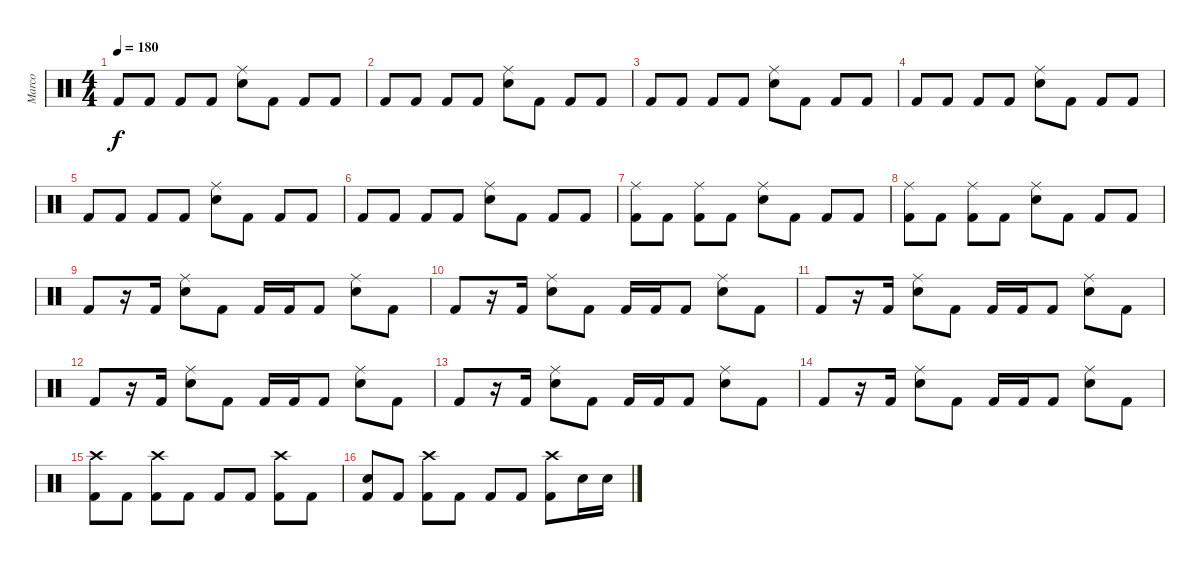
\track ("Marco" "Marco") {instrument percussion}
\staff {score}
\articulation defaults
\ts (4 4)
\tempo 180
\clef neutral
\ks c "Kick (hit) 2".8{dy f} "Kick (hit) 2".8 "Kick (hit) 2".8 "Kick (hit) 2".8
("Electric Snare (hit)" "Ride (middle)").8 "Kick (hit) 2".8 "Kick (hit) 2".8 "Kick (hit) 2".8 |
"Kick (hit) 2".8 "Kick (hit) 2".8 "Kick (hit) 2".8 "Kick (hit) 2".8 ("Electric Snare (hit)" "Ride (middle)").8 "Kick (hit) 2".8 "Kick (hit) 2".8 "Kick (hit) 2".8 |
"Kick (hit) 2".8 "Kick (hit) 2".8 "Kick (hit) 2".8 "Kick (hit) 2".8 ("Electric Snare (hit)" "Ride (middle)").8 "Kick (hit) 2".8 "Kick (hit) 2".8 "Kick (hit) 2".8 |
"Kick (hit) 2".8 "Kick (hit) 2".8 "Kick (hit) 2".8 "Kick (hit) 2".8 ("Electric Snare (hit)" "Ride (middle)").8 "Kick (hit) 2".8 "Kick (hit) 2".8 "Kick (hit) 2".8 |
"Kick (hit) 2".8 "Kick (hit) 2".8 "Kick (hit) 2".8 "Kick (hit) 2".8 ("Electric Snare (hit)" "Ride (middle)").8 "Kick (hit) 2".8 "Kick (hit) 2".8 "Kick (hit) 2".8 |
"Kick (hit) 2".8 "Kick (hit) 2".8 "Kick (hit) 2".8 "Kick (hit) 2".8 ("Electric Snare (hit)" "Ride (middle)").8 "Kick (hit) 2".8 "Kick (hit) 2".8 "Kick (hit) 2".8 |
("Kick (hit) 2" "Ride (middle)").8 "Kick (hit) 2".8 ("Kick (hit) 2" "Ride (middle)").8 "Kick (hit) 2".8 ("Electric Snare (hit)" "Ride (middle)").8 "Kick (hit) 2".8 "Kick (hit) 2".8 "Kick (hit) 2".8 |
("Kick (hit) 2" "Ride (middle)").8 "Kick (hit) 2".8 ("Kick (hit) 2" "Ride (middle)").8 "Kick (hit) 2".8 ("Electric Snare (hit)" "Ride (middle)").8 "Kick (hit) 2".8 "Kick (hit) 2".8 "Kick (hit) 2".8 |
"Kick (hit) 2".8 r.16 "Kick (hit) 2".16 ("Electric Snare (hit)" "Ride (middle)").8 "Kick (hit) 2".8 "Kick (hit) 2".16 "Kick (hit) 2".16 "Kick (hit) 2".8 ("Electric Snare (hit)" "Ride (middle)").8 "Kick (hit) 2".8 |
"Kick (hit) 2".8 r.16 "Kick (hit) 2".16 ("Electric Snare (hit)" "Ride (middle)").8 "Kick (hit) 2".8 "Kick (hit) 2".16 "Kick (hit) 2".16 "Kick (hit) 2".8 ("Electric Snare (hit)" "Ride (middle)").8 "Kick (hit) 2".8 |
"Kick (hit) 2".8 r.16 "Kick (hit) 2".16 ("Electric Snare (hit)" "Ride (middle)").8 "Kick (hit) 2".8 "Kick (hit) 2".16 "Kick (hit) 2".16 "Kick (hit) 2".8 ("Electric Snare (hit)" "Ride (middle)").8 "Kick (hit) 2".8 |
"Kick (hit) 2".8 r.16 "Kick (hit) 2".16 ("Electric Snare (hit)" "Ride (middle)").8 "Kick (hit) 2".8 "Kick (hit) 2".16 "Kick (hit) 2".16 "Kick (hit) 2".8 ("Electric Snare (hit)" "Ride (middle)").8 "Kick (hit) 2".8 |
"Kick (hit) 2".8 r.16 "Kick (hit) 2".16 ("Electric Snare (hit)" "Ride (middle)").8 "Kick (hit) 2".8 "Kick (hit) 2".16 "Kick (hit) 2".16 "Kick (hit) 2".8 ("Electric Snare (hit)" "Ride (middle)").8 "Kick (hit) 2".8 |
"Kick (hit) 2".8 r.16 "Kick (hit) 2".16 ("Electric Snare (hit)" "Ride (middle)").8 "Kick (hit) 2".8 "Kick (hit) 2".16 "Kick (hit) 2".16 "Kick (hit) 2".8 ("Electric Snare (hit)" "Ride (middle)").8 "Kick (hit) 2".8 |
("Kick (hit) 2" "Crash high (hit)").8 "Kick (hit) 2".8 ("Kick (hit) 2" "Crash high (hit)").8 "Kick (hit) 2".8 "Kick (hit) 2".8 "Kick (hit) 2".8 ("Kick (hit) 2" "Crash high (hit)").8 "Kick (hit) 2".8 |
("Kick (hit) 2" "Electric Snare (hit)").8 "Kick (hit) 2".8 ("Kick (hit) 2" "Crash high (hit)").8 "Kick (hit) 2".8 "Kick (hit) 2".8 "Kick (hit) 2".8 ("Kick (hit) 2" "Crash high (hit)").8 "Electric Snare (hit)".16 "Electric Snare (hit)".16
